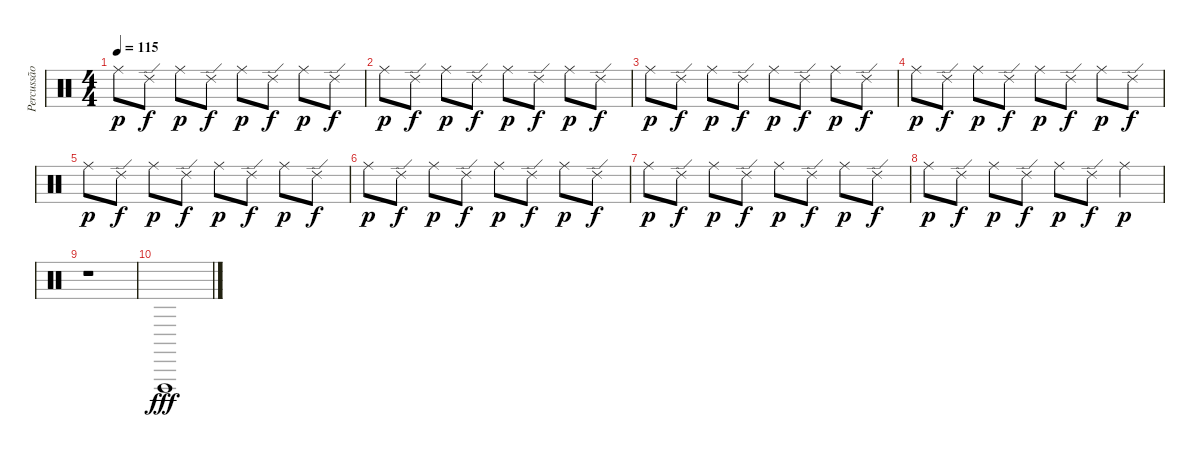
\track ("Percussão" "Percussão") {instrument percussion}
\staff {score}
\articulation defaults
\ts (4 4)
\tempo 115
\clef neutral
\ks c "Ride (middle)".8{dy p} "Ride (edge) 2".8{dy f} "Ride (middle)".8{dy p} "Ride (edge) 2".8{dy f} "Ride (middle)".8{dy p} "Ride (edge) 2".8{dy f} "Ride (middle)".8{dy p} "Ride (edge) 2".8{dy f}
|
"Ride (middle)".8{dy p} "Ride (edge) 2".8{dy f} "Ride (middle)".8{dy p} "Ride (edge) 2".8{dy f} "Ride (middle)".8{dy p} "Ride (edge) 2".8{dy f} "Ride (middle)".8{dy p} "Ride (edge) 2".8{dy f} |
"Ride (middle)".8{dy p} "Ride (edge) 2".8{dy f} "Ride (middle)".8{dy p} "Ride (edge) 2".8{dy f} "Ride (middle)".8{dy p} "Ride (edge) 2".8{dy f} "Ride (middle)".8{dy p} "Ride (edge) 2".8{dy f} |
"Ride (middle)".8{dy p} "Ride (edge) 2".8{dy f} "Ride (middle)".8{dy p} "Ride (edge) 2".8{dy f} "Ride (middle)".8{dy p} "Ride (edge) 2".8{dy f} "Ride (middle)".8{dy p} "Ride (edge) 2".8{dy f} |
"Ride (middle)".8{dy p} "Ride (edge) 2".8{dy f} "Ride (middle)".8{dy p} "Ride (edge) 2".8{dy f} "Ride (middle)".8{dy p} "Ride (edge) 2".8{dy f} "Ride (middle)".8{dy p} "Ride (edge) 2".8{dy f} |
"Ride (middle)".8{dy p} "Ride (edge) 2".8{dy f} "Ride (middle)".8{dy p} "Ride (edge) 2".8{dy f} "Ride (middle)".8{dy p} "Ride (edge) 2".8{dy f} "Ride (middle)".8{dy p} "Ride (edge) 2".8{dy f} |
"Ride (middle)".8{dy p} "Ride (edge) 2".8{dy f} "Ride (middle)".8{dy p} "Ride (edge) 2".8{dy f} "Ride (middle)".8{dy p} "Ride (edge) 2".8{dy f} "Ride (middle)".8{dy p} "Ride (edge) 2".8{dy f} |
"Ride (middle)".8{dy p} "Ride (edge) 2".8{dy f} "Ride (middle)".8{dy p} "Ride (edge) 2".8{dy f} "Ride (middle)".8{dy p} "Ride (edge) 2".8{dy f} "Ride (middle)".4{dy p} |
r.1 |
"Vibraslap (hit)".1{dy fff}
